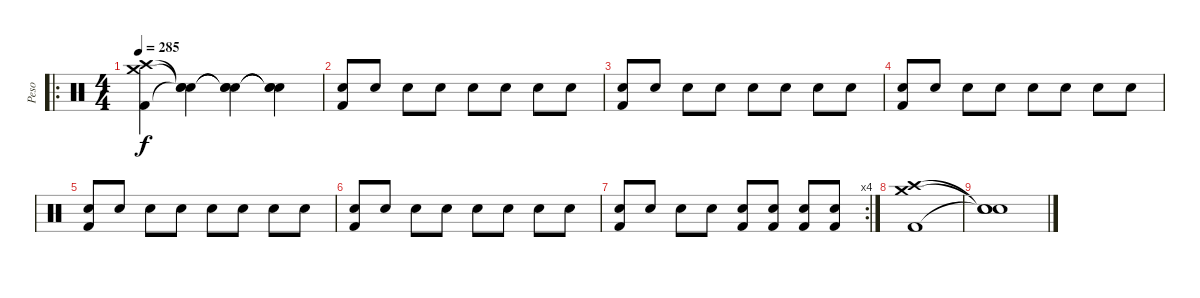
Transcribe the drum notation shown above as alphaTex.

\track ("Peso" "Peso") {instrument percussion}
\staff {score}
\articulation defaults
\ro
\ts (4 4)
\tempo 285
\clef neutral
\ks c
("Crash high (hit)" "Crash medium (hit)" "Kick (hit) 2").4{dy f volume 13} ("Snare (hit)"{t} "Snare (hit)"{t} "Snare (hit)"{t}).4 ("Snare (hit)"{t} "Snare (hit)"{t} "Snare (hit)"{t}).4 ("Snare (hit)"{t} "Snare (hit)"{t} "Snare (hit)"{t}).4 |
("Snare (hit) 2" "Kick (hit) 2").8{volume 3} "Snare (hit) 2".8 "Snare (hit) 2".8 "Snare (hit) 2".8 "Snare (hit) 2".8 "Snare (hit) 2".8 "Snare (hit) 2".8 "Snare (hit) 2".8 |
("Snare (hit) 2" "Kick (hit) 2").8{volume 7} "Snare (hit) 2".8 "Snare (hit) 2".8 "Snare (hit) 2".8 "Snare (hit) 2".8 "Snare (hit) 2".8 "Snare (hit) 2".8 "Snare (hit) 2".8 |
("Snare (hit) 2" "Kick (hit) 2").8{volume 7} "Snare (hit) 2".8 "Snare (hit) 2".8 "Snare (hit) 2".8 "Snare (hit) 2".8 "Snare (hit) 2".8 "Snare (hit) 2".8 "Snare (hit) 2".8 |
("Snare (hit) 2" "Kick (hit) 2").8{volume 7} "Snare (hit) 2".8 "Snare (hit) 2".8 "Snare (hit) 2".8 "Snare (hit) 2".8 "Snare (hit) 2".8 "Snare (hit) 2".8 "Snare (hit) 2".8 |
("Snare (hit) 2" "Kick (hit) 2").8 "Snare (hit) 2".8{volume 7} "Snare (hit) 2".8 "Snare (hit) 2".8 "Snare (hit) 2".8 "Snare (hit) 2".8 "Snare (hit) 2".8 "Snare (hit) 2".8 |
\rc 4
("Snare (hit) 2" "Kick (hit) 2").8{volume 7} "Snare (hit) 2".8 "Snare (hit) 2".8 "Snare (hit) 2".8 ("Snare (hit) 2" "Kick (hit) 2").8 ("Snare (hit) 2" "Kick (hit) 2").8 ("Snare (hit) 2" "Kick (hit) 2").8 ("Snare (hit) 2" "Kick (hit) 2").8 |
("Crash medium (hit)" "Crash high (hit)" "Kick (hit) 2").1{volume 16} |
("Snare (hit)"{t} "Snare (hit)"{t} "Snare (hit)"{t}).1
